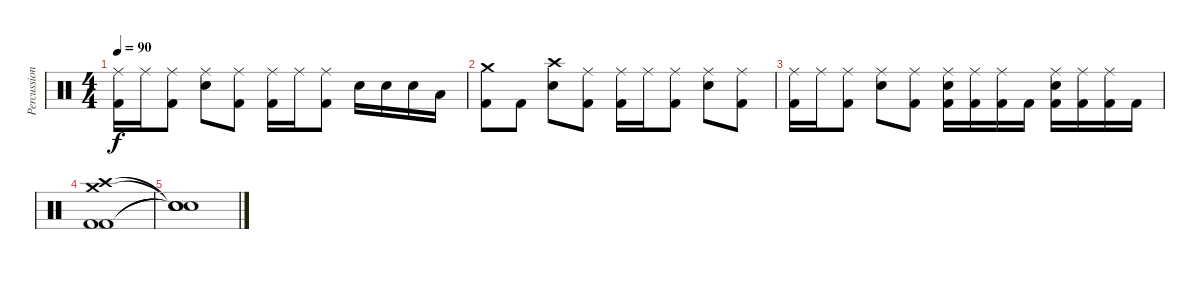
\track ("Percussion" "Percussion") {instrument percussion}
\staff {score}
\articulation defaults
\ts (4 4)
\tempo 90
\clef neutral
\ks c
("Ride (middle)" "Kick (hit) 2").16{dy f} "Ride (middle)".16 ("Ride (middle)" "Kick (hit) 2").8 ("Ride (middle)" "Electric Snare (hit)").8 ("Ride (middle)" "Kick (hit) 2").8 ("Ride (middle)" "Kick (hit) 2").16 "Ride (middle)".16 ("Ride (middle)" "Kick (hit) 2").8 "Electric Snare (hit)".16 "Electric Snare (hit)".16 "Electric Snare (hit)".16 "Low Tom (hit)".16 |
("Crash medium (hit)" "Kick (hit) 2").8 "Kick (hit) 2".8 ("Crash high (hit)" "Electric Snare (hit)").8 ("Ride (middle)" "Kick (hit) 2").8 ("Ride (middle)" "Kick (hit) 2").16 "Ride (middle)".16 ("Ride (middle)" "Kick (hit) 2").8 ("Ride (middle)" "Electric Snare (hit)").8 ("Ride (middle)" "Kick (hit) 2").8 |
("Ride (middle)" "Kick (hit) 2").16 "Ride (middle)".16 ("Ride (middle)" "Kick (hit) 2").8 ("Ride (middle)" "Electric Snare (hit)").8 ("Ride (middle)" "Kick (hit) 2").8 ("Ride (middle)" "Electric Snare (hit)" "Kick (hit) 2").16 ("Ride (middle)" "Kick (hit) 2").16 ("Ride (middle)" "Kick (hit) 2").16 "Kick (hit) 2".16 ("Ride (middle)" "Electric Snare (hit)" "Kick (hit) 2").16 ("Ride (middle)" "Kick (hit) 2").16 ("Ride (middle)" "Kick (hit) 2").16 "Kick (hit) 2".16 |
("Crash medium (hit)" "Crash high (hit)" "Kick (hit) 2" "Kick (hit) 2").1 |
("Snare (hit)"{t} "Snare (hit)"{t} "Snare (hit)"{t} "Snare (hit)"{t}).1
